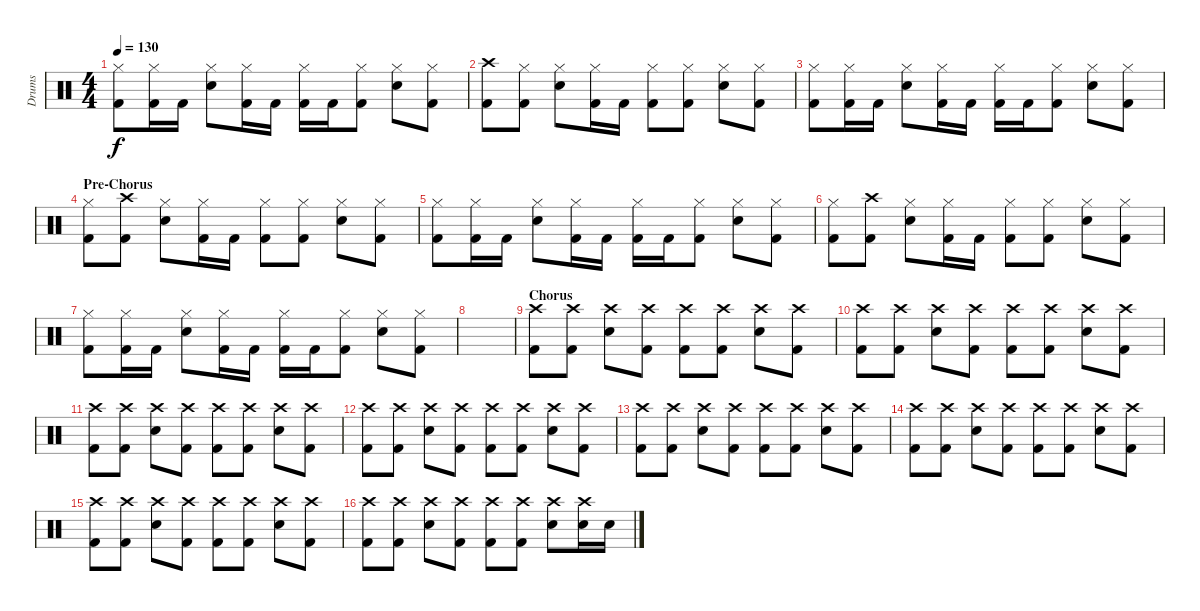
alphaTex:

\track ("Drums" "Drums") {instrument percussion}
\staff {score}
\articulation defaults
\ts (4 4)
\tempo 130
\clef neutral
\ks c
("Hi-Hat (closed)" "Kick (hit) 2").8{dy f} ("Hi-Hat (closed)" "Kick (hit) 2").16 "Kick (hit) 2".16 ("Hi-Hat (closed)" "Electric Snare (hit)").8 ("Hi-Hat (closed)" "Kick (hit) 2").16 "Kick (hit) 2".16 ("Hi-Hat (closed)" "Kick (hit) 2").16 "Kick (hit) 2".16 ("Hi-Hat (closed)" "Kick (hit) 2").8 ("Hi-Hat (closed)" "Electric Snare (hit)").8 ("Hi-Hat (closed)" "Kick (hit) 2").8 |
("Crash high (hit)" "Kick (hit) 2").8 ("Hi-Hat (closed)" "Kick (hit) 2").8 ("Hi-Hat (closed)" "Electric Snare (hit)").8 ("Hi-Hat (closed)" "Kick (hit) 2").16 "Kick (hit) 2".16 ("Hi-Hat (closed)" "Kick (hit) 2").8 ("Hi-Hat (closed)" "Kick (hit) 2").8 ("Hi-Hat (closed)" "Electric Snare (hit)").8 ("Hi-Hat (closed)" "Kick (hit) 2").8 |
("Hi-Hat (closed)" "Kick (hit) 2").8 ("Hi-Hat (closed)" "Kick (hit) 2").16 "Kick (hit) 2".16 ("Hi-Hat (closed)" "Electric Snare (hit)").8 ("Hi-Hat (closed)" "Kick (hit) 2").16 "Kick (hit) 2".16 ("Hi-Hat (closed)" "Kick (hit) 2").16 "Kick (hit) 2".16 ("Hi-Hat (closed)" "Kick (hit) 2").8 ("Hi-Hat (closed)" "Electric Snare (hit)").8 ("Hi-Hat (closed)" "Kick (hit) 2").8 |
\section ("" "Pre-Chorus")
("Hi-Hat (closed)" "Kick (hit) 2").8 ("Crash high (hit)" "Kick (hit) 2").8 ("Hi-Hat (closed)" "Electric Snare (hit)").8 ("Hi-Hat (closed)" "Kick (hit) 2").16 "Kick (hit) 2".16 ("Hi-Hat (closed)" "Kick (hit) 2").8 ("Hi-Hat (closed)" "Kick (hit) 2").8 ("Hi-Hat (closed)" "Electric Snare (hit)").8 ("Hi-Hat (closed)" "Kick (hit) 2").8 |
("Hi-Hat (closed)" "Kick (hit) 2").8 ("Hi-Hat (closed)" "Kick (hit) 2").16 "Kick (hit) 2".16 ("Hi-Hat (closed)" "Electric Snare (hit)").8 ("Hi-Hat (closed)" "Kick (hit) 2").16 "Kick (hit) 2".16 ("Hi-Hat (closed)" "Kick (hit) 2").16 "Kick (hit) 2".16 ("Hi-Hat (closed)" "Kick (hit) 2").8 ("Hi-Hat (closed)" "Electric Snare (hit)").8 ("Hi-Hat (closed)" "Kick (hit) 2").8 |
("Hi-Hat (closed)" "Kick (hit) 2").8 ("Crash high (hit)" "Kick (hit) 2").8 ("Hi-Hat (closed)" "Electric Snare (hit)").8 ("Hi-Hat (closed)" "Kick (hit) 2").16 "Kick (hit) 2".16 ("Hi-Hat (closed)" "Kick (hit) 2").8 ("Hi-Hat (closed)" "Kick (hit) 2").8 ("Hi-Hat (closed)" "Electric Snare (hit)").8 ("Hi-Hat (closed)" "Kick (hit) 2").8 |
("Hi-Hat (closed)" "Kick (hit) 2").8 ("Hi-Hat (closed)" "Kick (hit) 2").16 "Kick (hit) 2".16 ("Hi-Hat (closed)" "Electric Snare (hit)").8 ("Hi-Hat (closed)" "Kick (hit) 2").16 "Kick (hit) 2".16 ("Hi-Hat (closed)" "Kick (hit) 2").16 "Kick (hit) 2".16 ("Hi-Hat (closed)" "Kick (hit) 2").8 ("Hi-Hat (closed)" "Electric Snare (hit)").8 ("Hi-Hat (closed)" "Kick (hit) 2").8 |
|
\section ("" "Chorus")
("Crash high (hit)" "Kick (hit) 2").8 ("Crash high (hit)" "Kick (hit) 2").8 ("Crash high (hit)" "Electric Snare (hit)").8 ("Crash high (hit)" "Kick (hit) 2").8 ("Crash high (hit)" "Kick (hit) 2").8 ("Crash high (hit)" "Kick (hit) 2").8 ("Crash high (hit)" "Electric Snare (hit)").8 ("Crash high (hit)" "Kick (hit) 2").8 |
("Crash high (hit)" "Kick (hit) 2").8 ("Crash high (hit)" "Kick (hit) 2").8 ("Crash high (hit)" "Electric Snare (hit)").8 ("Crash high (hit)" "Kick (hit) 2").8 ("Crash high (hit)" "Kick (hit) 2").8 ("Crash high (hit)" "Kick (hit) 2").8 ("Crash high (hit)" "Electric Snare (hit)").8 ("Crash high (hit)" "Kick (hit) 2").8 |
("Crash high (hit)" "Kick (hit) 2").8 ("Crash high (hit)" "Kick (hit) 2").8 ("Crash high (hit)" "Electric Snare (hit)").8 ("Crash high (hit)" "Kick (hit) 2").8 ("Crash high (hit)" "Kick (hit) 2").8 ("Crash high (hit)" "Kick (hit) 2").8 ("Crash high (hit)" "Electric Snare (hit)").8 ("Crash high (hit)" "Kick (hit) 2").8 |
("Crash high (hit)" "Kick (hit) 2").8 ("Crash high (hit)" "Kick (hit) 2").8 ("Crash high (hit)" "Electric Snare (hit)").8 ("Crash high (hit)" "Kick (hit) 2").8 ("Crash high (hit)" "Kick (hit) 2").8 ("Crash high (hit)" "Kick (hit) 2").8 ("Crash high (hit)" "Electric Snare (hit)").8 ("Crash high (hit)" "Kick (hit) 2").8 |
("Crash high (hit)" "Kick (hit) 2").8 ("Crash high (hit)" "Kick (hit) 2").8 ("Crash high (hit)" "Electric Snare (hit)").8 ("Crash high (hit)" "Kick (hit) 2").8 ("Crash high (hit)" "Kick (hit) 2").8 ("Crash high (hit)" "Kick (hit) 2").8 ("Crash high (hit)" "Electric Snare (hit)").8 ("Crash high (hit)" "Kick (hit) 2").8 |
("Crash high (hit)" "Kick (hit) 2").8 ("Crash high (hit)" "Kick (hit) 2").8 ("Crash high (hit)" "Electric Snare (hit)").8 ("Crash high (hit)" "Kick (hit) 2").8 ("Crash high (hit)" "Kick (hit) 2").8 ("Crash high (hit)" "Kick (hit) 2").8 ("Crash high (hit)" "Electric Snare (hit)").8 ("Crash high (hit)" "Kick (hit) 2").8 |
("Crash high (hit)" "Kick (hit) 2").8 ("Crash high (hit)" "Kick (hit) 2").8 ("Crash high (hit)" "Electric Snare (hit)").8 ("Crash high (hit)" "Kick (hit) 2").8 ("Crash high (hit)" "Kick (hit) 2").8 ("Crash high (hit)" "Kick (hit) 2").8 ("Crash high (hit)" "Electric Snare (hit)").8 ("Crash high (hit)" "Kick (hit) 2").8 |
("Crash high (hit)" "Kick (hit) 2").8 ("Crash high (hit)" "Kick (hit) 2").8 ("Crash high (hit)" "Electric Snare (hit)").8 ("Crash high (hit)" "Kick (hit) 2").8 ("Crash high (hit)" "Kick (hit) 2").8 ("Crash high (hit)" "Kick (hit) 2").8 ("Crash high (hit)" "Electric Snare (hit)").8 ("Crash high (hit)" "Electric Snare (hit)").16 "Electric Snare (hit)".16
